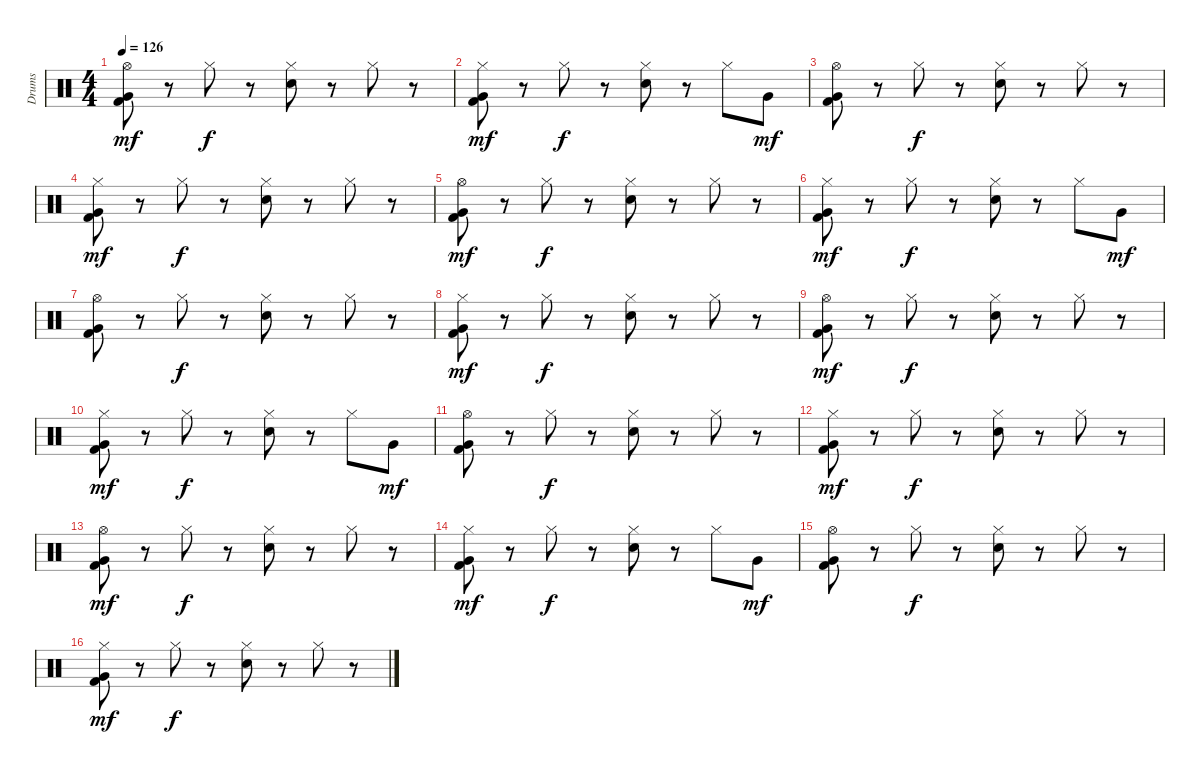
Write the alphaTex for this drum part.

\track ("Drums" "Drums") {instrument percussion}
\staff {score}
\articulation defaults
\ts (4 4)
\tempo 126
\clef neutral
\ks c
("Hi-Hat (open)" "Very Low Tom (hit)" "Kick (hit) 2").8{dy mf} r.8 "Hi-Hat (closed)".8{dy f} r.8 ("Hi-Hat (closed)" "Electric Snare (hit)").8 r.8 "Hi-Hat (closed)".8 r.8 |
("Hi-Hat (closed)" "Very Low Tom (hit)" "Kick (hit) 2").8{dy mf} r.8 "Hi-Hat (closed)".8{dy f} r.8 ("Hi-Hat (closed)" "Electric Snare (hit)").8 r.8 "Hi-Hat (closed)".8 "Very Low Tom (hit)".8{dy mf} |
("Hi-Hat (open)" "Very Low Tom (hit)" "Kick (hit) 2").8 r.8 "Hi-Hat (closed)".8{dy f} r.8 ("Hi-Hat (closed)" "Electric Snare (hit)").8 r.8 "Hi-Hat (closed)".8 r.8 |
("Hi-Hat (closed)" "Very Low Tom (hit)" "Kick (hit) 2").8{dy mf} r.8 "Hi-Hat (closed)".8{dy f} r.8 ("Hi-Hat (closed)" "Electric Snare (hit)").8 r.8 "Hi-Hat (closed)".8 r.8 |
("Hi-Hat (open)" "Very Low Tom (hit)" "Kick (hit) 2").8{dy mf} r.8 "Hi-Hat (closed)".8{dy f} r.8 ("Hi-Hat (closed)" "Electric Snare (hit)").8 r.8 "Hi-Hat (closed)".8 r.8 |
("Hi-Hat (closed)" "Very Low Tom (hit)" "Kick (hit) 2").8{dy mf} r.8 "Hi-Hat (closed)".8{dy f} r.8 ("Hi-Hat (closed)" "Electric Snare (hit)").8 r.8 "Hi-Hat (closed)".8 "Very Low Tom (hit)".8{dy mf} |
("Hi-Hat (open)" "Very Low Tom (hit)" "Kick (hit) 2").8 r.8 "Hi-Hat (closed)".8{dy f} r.8 ("Hi-Hat (closed)" "Electric Snare (hit)").8 r.8 "Hi-Hat (closed)".8 r.8 |
("Hi-Hat (closed)" "Very Low Tom (hit)" "Kick (hit) 2").8{dy mf} r.8 "Hi-Hat (closed)".8{dy f} r.8 ("Hi-Hat (closed)" "Electric Snare (hit)").8 r.8 "Hi-Hat (closed)".8 r.8 |
("Hi-Hat (open)" "Very Low Tom (hit)" "Kick (hit) 2").8{dy mf} r.8 "Hi-Hat (closed)".8{dy f} r.8 ("Hi-Hat (closed)" "Electric Snare (hit)").8 r.8 "Hi-Hat (closed)".8 r.8 |
("Hi-Hat (closed)" "Very Low Tom (hit)" "Kick (hit) 2").8{dy mf} r.8 "Hi-Hat (closed)".8{dy f} r.8 ("Hi-Hat (closed)" "Electric Snare (hit)").8 r.8 "Hi-Hat (closed)".8 "Very Low Tom (hit)".8{dy mf} |
("Hi-Hat (open)" "Very Low Tom (hit)" "Kick (hit) 2").8 r.8 "Hi-Hat (closed)".8{dy f} r.8 ("Hi-Hat (closed)" "Electric Snare (hit)").8 r.8 "Hi-Hat (closed)".8 r.8 |
("Hi-Hat (closed)" "Very Low Tom (hit)" "Kick (hit) 2").8{dy mf} r.8 "Hi-Hat (closed)".8{dy f} r.8 ("Hi-Hat (closed)" "Electric Snare (hit)").8 r.8 "Hi-Hat (closed)".8 r.8 |
("Hi-Hat (open)" "Very Low Tom (hit)" "Kick (hit) 2").8{dy mf} r.8 "Hi-Hat (closed)".8{dy f} r.8 ("Hi-Hat (closed)" "Electric Snare (hit)").8 r.8 "Hi-Hat (closed)".8 r.8 |
("Hi-Hat (closed)" "Very Low Tom (hit)" "Kick (hit) 2").8{dy mf} r.8 "Hi-Hat (closed)".8{dy f} r.8 ("Hi-Hat (closed)" "Electric Snare (hit)").8 r.8 "Hi-Hat (closed)".8 "Very Low Tom (hit)".8{dy mf} |
("Hi-Hat (open)" "Very Low Tom (hit)" "Kick (hit) 2").8 r.8 "Hi-Hat (closed)".8{dy f} r.8 ("Hi-Hat (closed)" "Electric Snare (hit)").8 r.8 "Hi-Hat (closed)".8 r.8 |
("Hi-Hat (closed)" "Very Low Tom (hit)" "Kick (hit) 2").8{dy mf} r.8 "Hi-Hat (closed)".8{dy f} r.8 ("Hi-Hat (closed)" "Electric Snare (hit)").8 r.8 "Hi-Hat (closed)".8 r.8
